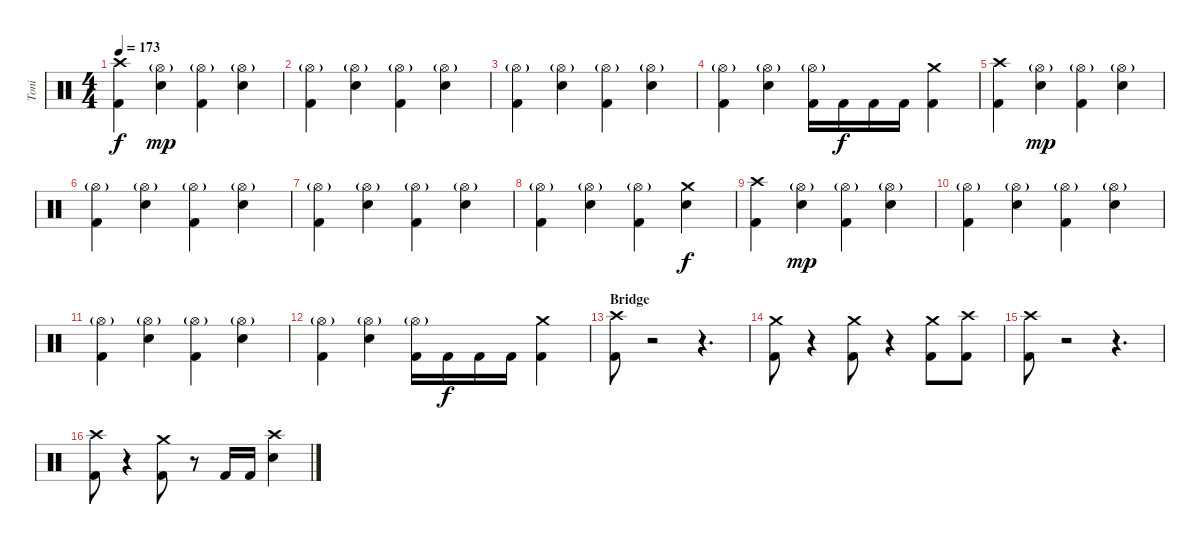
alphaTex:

\track ("Toni" "Toni") {instrument percussion}
\staff {score}
\articulation defaults
\ts (4 4)
\tempo 173
\clef neutral
\ks c
("Crash high (hit)" "Kick (hit) 2").4{dy f} ("Hi-Hat (open)"{g} "Electric Snare (hit)").4{dy mp} ("Hi-Hat (open)"{g} "Kick (hit) 2").4 ("Hi-Hat (open)"{g} "Electric Snare (hit)").4 |
("Hi-Hat (open)"{g} "Kick (hit) 2").4 ("Hi-Hat (open)"{g} "Electric Snare (hit)").4 ("Hi-Hat (open)"{g} "Kick (hit) 2").4 ("Hi-Hat (open)"{g} "Electric Snare (hit)").4 |
("Hi-Hat (open)"{g} "Kick (hit) 2").4 ("Hi-Hat (open)"{g} "Electric Snare (hit)").4 ("Hi-Hat (open)"{g} "Kick (hit) 2").4 ("Hi-Hat (open)"{g} "Electric Snare (hit)").4 |
("Hi-Hat (open)"{g} "Kick (hit) 2").4 ("Hi-Hat (open)"{g} "Electric Snare (hit)").4 ("Hi-Hat (open)"{g} "Kick (hit) 2").16 "Kick (hit) 2".16{dy f} "Kick (hit) 2".16 "Kick (hit) 2".16 ("Crash medium (hit)" "Kick (hit) 2").4 |
("Crash high (hit)" "Kick (hit) 2").4 ("Hi-Hat (open)"{g} "Electric Snare (hit)").4{dy mp} ("Hi-Hat (open)"{g} "Kick (hit) 2").4 ("Hi-Hat (open)"{g} "Electric Snare (hit)").4 |
("Hi-Hat (open)"{g} "Kick (hit) 2").4 ("Hi-Hat (open)"{g} "Electric Snare (hit)").4 ("Hi-Hat (open)"{g} "Kick (hit) 2").4 ("Hi-Hat (open)"{g} "Electric Snare (hit)").4 |
("Hi-Hat (open)"{g} "Kick (hit) 2").4 ("Hi-Hat (open)"{g} "Electric Snare (hit)").4 ("Hi-Hat (open)"{g} "Kick (hit) 2").4 ("Hi-Hat (open)"{g} "Electric Snare (hit)").4 |
("Hi-Hat (open)"{g} "Kick (hit) 2").4 ("Hi-Hat (open)"{g} "Electric Snare (hit)").4 ("Hi-Hat (open)"{g} "Kick (hit) 2").4 ("Crash medium (hit)" "Electric Snare (hit)").4{dy f} |
("Crash high (hit)" "Kick (hit) 2").4 ("Hi-Hat (open)"{g} "Electric Snare (hit)").4{dy mp} ("Hi-Hat (open)"{g} "Kick (hit) 2").4 ("Hi-Hat (open)"{g} "Electric Snare (hit)").4 |
("Hi-Hat (open)"{g} "Kick (hit) 2").4 ("Hi-Hat (open)"{g} "Electric Snare (hit)").4 ("Hi-Hat (open)"{g} "Kick (hit) 2").4 ("Hi-Hat (open)"{g} "Electric Snare (hit)").4 |
("Hi-Hat (open)"{g} "Kick (hit) 2").4 ("Hi-Hat (open)"{g} "Electric Snare (hit)").4 ("Hi-Hat (open)"{g} "Kick (hit) 2").4 ("Hi-Hat (open)"{g} "Electric Snare (hit)").4 |
("Hi-Hat (open)"{g} "Kick (hit) 2").4 ("Hi-Hat (open)"{g} "Electric Snare (hit)").4 ("Hi-Hat (open)"{g} "Kick (hit) 2").16 "Kick (hit) 2".16{dy f} "Kick (hit) 2".16 "Kick (hit) 2".16 ("Crash medium (hit)" "Kick (hit) 2").4 |
\section ("" "Bridge")
("Crash high (hit)" "Kick (hit) 2").8 r.2 r.4{d} |
("Crash medium (hit)" "Kick (hit) 2").8 r.4 ("Crash medium (hit)" "Kick (hit) 2").8 r.4 ("Crash medium (hit)" "Kick (hit) 2").8 ("Crash high (hit)" "Kick (hit) 2").8 |
("Crash high (hit)" "Kick (hit) 2").8 r.2 r.4{d} |
("Crash high (hit)" "Kick (hit) 2").8 r.4 ("Crash medium (hit)" "Kick (hit) 2").8 r.8 "Kick (hit) 2".16 "Kick (hit) 2".16 ("Crash high (hit)" "Electric Snare (hit)").4
